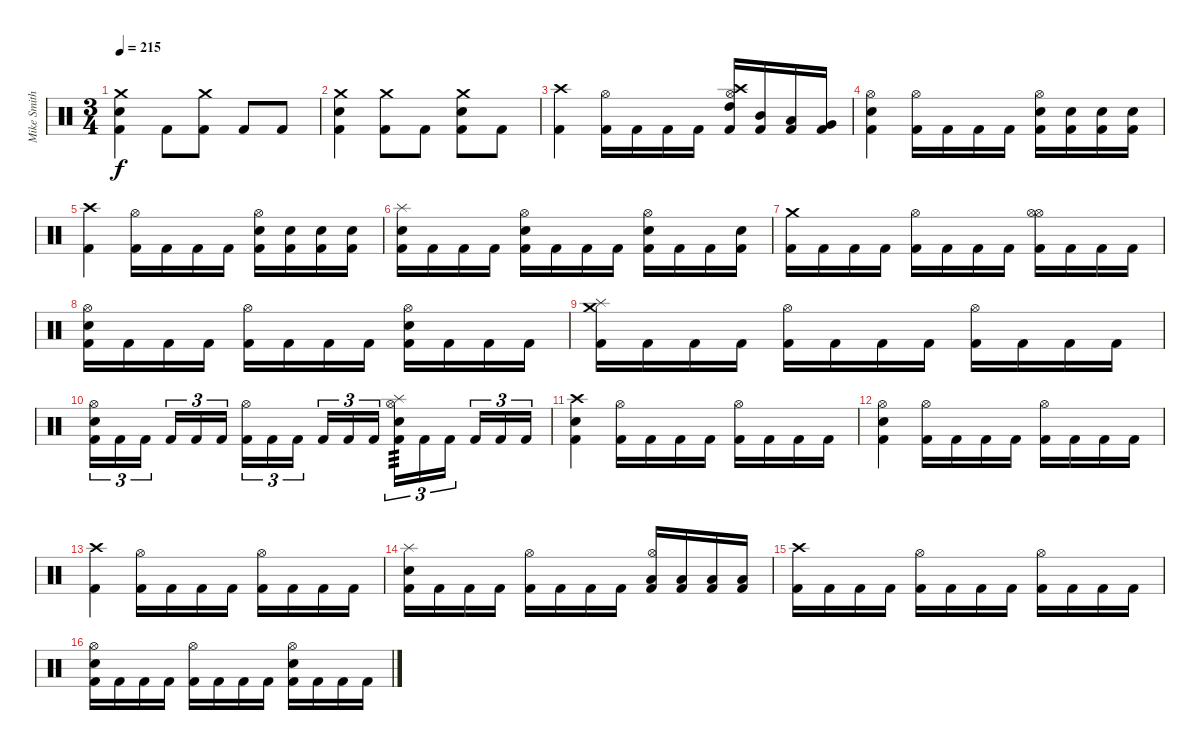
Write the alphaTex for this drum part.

\track ("Mike Smith (Suffocation)" "Mike Smith") {instrument percussion}
\staff {score}
\articulation defaults
\ts (3 4)
\tempo 215
\clef neutral
\ks c
("Crash medium (hit)" "Snare (hit) 2" "Kick (hit) 2").4{dy f} "Kick (hit) 2".8 ("Crash medium (hit)" "Kick (hit) 2").8 "Kick (hit) 2".8 "Kick (hit) 2".8 |
("Crash medium (hit)" "Snare (hit) 2" "Kick (hit) 2").4 ("Crash medium (hit)" "Kick (hit) 2").8 "Kick (hit) 2".8 ("Crash medium (hit)" "Snare (hit) 2" "Kick (hit) 2").8 "Kick (hit) 2".8 |
("Crash high (hit)" "Kick (hit) 2").4 ("Hi-Hat (open)" "Kick (hit) 2").16 "Kick (hit) 2".16 "Kick (hit) 2".16 "Kick (hit) 2".16 ("Crash high (hit)" "Hi-Hat (open)" "High Tom (hit)" "Kick (hit) 2").16 ("Mid Tom (hit)" "Kick (hit) 2").16 ("Low Tom (hit)" "Kick (hit) 2").16 ("Very Low Tom (hit)" "Kick (hit) 2").16 |
("Hi-Hat (open)" "Snare (hit) 2" "Kick (hit) 2").4 ("Hi-Hat (open)" "Kick (hit) 2").16 "Kick (hit) 2".16 "Kick (hit) 2".16 "Kick (hit) 2".16 ("Hi-Hat (open)" "Snare (hit) 2" "Kick (hit) 2").16 ("Snare (hit) 2" "Kick (hit) 2").16 ("Snare (hit) 2" "Kick (hit) 2").16 ("Snare (hit) 2" "Kick (hit) 2").16 |
("Crash high (hit)" "Kick (hit) 2").4 ("Hi-Hat (open)" "Kick (hit) 2").16 "Kick (hit) 2".16 "Kick (hit) 2".16 "Kick (hit) 2".16 ("Hi-Hat (open)" "Snare (hit) 2" "Kick (hit) 2").16 ("Snare (hit) 2" "Kick (hit) 2").16 ("Snare (hit) 2" "Kick (hit) 2").16 ("Snare (hit) 2" "Kick (hit) 2").16 |
("Splash (hit)" "Snare (hit) 2" "Kick (hit) 2").16 "Kick (hit) 2".16 "Kick (hit) 2".16 "Kick (hit) 2".16 ("Hi-Hat (open)" "Snare (hit) 2" "Kick (hit) 2").16 "Kick (hit) 2".16 "Kick (hit) 2".16 "Kick (hit) 2".16 ("Hi-Hat (open)" "Snare (hit) 2" "Kick (hit) 2").16 "Kick (hit) 2".16 "Kick (hit) 2".16 ("Snare (hit) 2" "Kick (hit) 2").16 |
("Crash medium (hit)" "Kick (hit) 2").16 "Kick (hit) 2".16 "Kick (hit) 2".16 "Kick (hit) 2".16 ("Hi-Hat (open)" "Kick (hit) 2").16 "Kick (hit) 2".16 "Kick (hit) 2".16 "Kick (hit) 2".16 ("Hi-Hat (open)" "Hi-Hat (open)" "Kick (hit) 2").16 "Kick (hit) 2".16 "Kick (hit) 2".16 "Kick (hit) 2".16 |
("Hi-Hat (open)" "Snare (hit) 2" "Kick (hit) 2").16 "Kick (hit) 2".16 "Kick (hit) 2".16 "Kick (hit) 2".16 ("Hi-Hat (open)" "Kick (hit) 2").16 "Kick (hit) 2".16 "Kick (hit) 2".16 "Kick (hit) 2".16 ("Hi-Hat (open)" "Snare (hit) 2" "Kick (hit) 2").16 "Kick (hit) 2".16 "Kick (hit) 2".16 "Kick (hit) 2".16 |
("Splash (hit)" "Crash medium (hit)" "Kick (hit) 2").16 "Kick (hit) 2".16 "Kick (hit) 2".16 "Kick (hit) 2".16 ("Hi-Hat (open)" "Kick (hit) 2").16 "Kick (hit) 2".16 "Kick (hit) 2".16 "Kick (hit) 2".16 ("Hi-Hat (open)" "Kick (hit) 2").16 "Kick (hit) 2".16 "Kick (hit) 2".16 "Kick (hit) 2".16 |
("Hi-Hat (open)" "Snare (hit) 2" "Kick (hit) 2").16{tu (3 2)} "Kick (hit) 2".16{tu (3 2)} "Kick (hit) 2".16{tu (3 2) beam splitsecondary} "Kick (hit) 2".16{tu (3 2)} "Kick (hit) 2".16{tu (3 2)} "Kick (hit) 2".16{tu (3 2)} ("Hi-Hat (open)" "Kick (hit) 2").16{tu (3 2)} "Kick (hit) 2".16{tu (3 2)} "Kick (hit) 2".16{tu (3 2) beam splitsecondary} "Kick (hit) 2".16{tu (3 2)} "Kick (hit) 2".16{tu (3 2)} "Kick (hit) 2".16{tu (3 2)} ("Hi-Hat (open)" "Splash (hit)" "Snare (hit) 2" "Kick (hit) 2").16{tu (3 2) tp 3} "Kick (hit) 2".16{tu (3 2)} "Kick (hit) 2".16{tu (3 2) beam splitsecondary} "Kick (hit) 2".16{tu (3 2)} "Kick (hit) 2".16{tu (3 2)} "Kick (hit) 2".16{tu (3 2)} |
("Crash high (hit)" "Snare (hit) 2" "Kick (hit) 2").4 ("Hi-Hat (open)" "Kick (hit) 2").16 "Kick (hit) 2".16 "Kick (hit) 2".16 "Kick (hit) 2".16 ("Hi-Hat (open)" "Kick (hit) 2").16 "Kick (hit) 2".16 "Kick (hit) 2".16 "Kick (hit) 2".16 |
("Hi-Hat (open)" "Snare (hit) 2" "Kick (hit) 2").4 ("Hi-Hat (open)" "Kick (hit) 2").16 "Kick (hit) 2".16 "Kick (hit) 2".16 "Kick (hit) 2".16 ("Hi-Hat (open)" "Kick (hit) 2").16 "Kick (hit) 2".16 "Kick (hit) 2".16 "Kick (hit) 2".16 |
("Crash high (hit)" "Kick (hit) 2").4 ("Hi-Hat (open)" "Kick (hit) 2").16 "Kick (hit) 2".16 "Kick (hit) 2".16 "Kick (hit) 2".16 ("Hi-Hat (open)" "Kick (hit) 2").16 "Kick (hit) 2".16 "Kick (hit) 2".16 "Kick (hit) 2".16 |
("Splash (hit)" "Snare (hit) 2" "Kick (hit) 2").16 "Kick (hit) 2".16 "Kick (hit) 2".16 "Kick (hit) 2".16 ("Hi-Hat (open)" "Kick (hit) 2").16 "Kick (hit) 2".16 "Kick (hit) 2".16 "Kick (hit) 2".16 ("Hi-Hat (open)" "Low Tom (hit)" "Kick (hit) 2").16 ("Low Tom (hit)" "Kick (hit) 2").16 ("Low Tom (hit)" "Kick (hit) 2").16 ("Low Tom (hit)" "Kick (hit) 2").16 |
("Crash high (hit)" "Kick (hit) 2").16 "Kick (hit) 2".16 "Kick (hit) 2".16 "Kick (hit) 2".16 ("Hi-Hat (open)" "Kick (hit) 2").16 "Kick (hit) 2".16 "Kick (hit) 2".16 "Kick (hit) 2".16 ("Hi-Hat (open)" "Kick (hit) 2").16 "Kick (hit) 2".16 "Kick (hit) 2".16 "Kick (hit) 2".16 |
("Hi-Hat (open)" "Snare (hit) 2" "Kick (hit) 2").16 "Kick (hit) 2".16 "Kick (hit) 2".16 "Kick (hit) 2".16 ("Hi-Hat (open)" "Kick (hit) 2").16 "Kick (hit) 2".16 "Kick (hit) 2".16 "Kick (hit) 2".16 ("Hi-Hat (open)" "Snare (hit) 2" "Kick (hit) 2").16 "Kick (hit) 2".16 "Kick (hit) 2".16 "Kick (hit) 2".16
